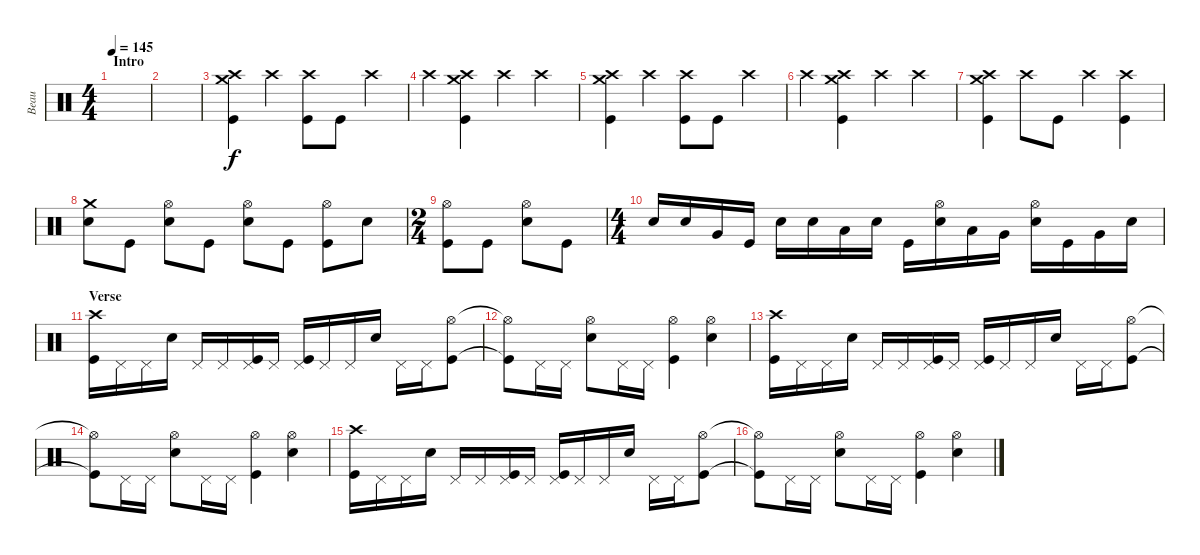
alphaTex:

\track ("Beau" "Beau") {instrument percussion}
\staff {score}
\articulation defaults
\ts (4 4)
\section ("" "Intro")
\tempo 145
\clef neutral
\ks c
|
|
("Kick (hit)" "Crash medium (hit)" "Crash high (hit)").4 "Crash high (hit)".4 ("Kick (hit)" "Crash high (hit)").8 "Kick (hit)".8 "Crash high (hit)".4 |
"Crash high (hit)".4 ("Kick (hit)" "Crash medium (hit)" "Crash high (hit)").4 "Crash high (hit)".4 "Crash high (hit)".4 |
("Kick (hit)" "Crash medium (hit)" "Crash high (hit)").4 "Crash high (hit)".4 ("Kick (hit)" "Crash high (hit)").8 "Kick (hit)".8 "Crash high (hit)".4 |
"Crash high (hit)".4 ("Kick (hit)" "Crash medium (hit)" "Crash high (hit)").4 "Crash high (hit)".4 "Crash high (hit)".4 |
("Kick (hit)" "Crash medium (hit)" "Crash high (hit)").4 "Crash high (hit)".8 "Kick (hit)".8 "Crash high (hit)".4 ("Kick (hit)" "Crash high (hit)").4 |
("Snare (hit) 2" "Crash medium (hit)").8 "Kick (hit)".8 ("Snare (hit) 2" "Hi-Hat (open)").8 "Kick (hit)".8 ("Snare (hit) 2" "Hi-Hat (open)").8 "Kick (hit)".8 ("Kick (hit)" "Hi-Hat (open)").8 "Snare (hit) 2".8 |
\ts (2 4)
("Kick (hit)" "Hi-Hat (open)").8 "Kick (hit)".8 ("Snare (hit) 2" "Hi-Hat (open)").8 "Kick (hit)".8 |
\ts (4 4)
"Snare (hit) 2".16 "Snare (hit) 2".16 "Very Low Tom (hit)".16 "Kick (hit)".16 "Snare (hit) 2".16 "Snare (hit) 2".16 "Low Tom (hit)".16 "Snare (hit) 2".16 "Kick (hit)".16 ("Snare (hit) 2" "Hi-Hat (open)").16 "Low Tom (hit)".16 "Very Low Tom (hit)".16 ("Snare (hit) 2" "Hi-Hat (open)").16 "Kick (hit)".16 "Very Low Tom (hit)".16 "Snare (hit) 2".16 |
\section ("" "Verse")
("Kick (hit)" "Crash high (hit)").16 "Pedal Hi-Hat (hit)".16 "Pedal Hi-Hat (hit)".16 "Snare (hit) 2".16 "Pedal Hi-Hat (hit)".16 "Pedal Hi-Hat (hit)".16 ("Kick (hit)" "Pedal Hi-Hat (hit)").16 "Pedal Hi-Hat (hit)".16 ("Kick (hit)" "Pedal Hi-Hat (hit)").16 "Pedal Hi-Hat (hit)".16 "Pedal Hi-Hat (hit)".16 "Snare (hit) 2".16 "Pedal Hi-Hat (hit)".16 "Pedal Hi-Hat (hit)".16 ("Kick (hit)" "Hi-Hat (open)").8 |
("Kick (hit)"{t} "Hi-Hat (open)"{t}).8 "Pedal Hi-Hat (hit)".16 "Pedal Hi-Hat (hit)".16 ("Snare (hit) 2" "Hi-Hat (open)").8 "Pedal Hi-Hat (hit)".16 "Pedal Hi-Hat (hit)".16 ("Kick (hit)" "Hi-Hat (open)").4 ("Snare (hit) 2" "Hi-Hat (open)").4 |
("Kick (hit)" "Crash high (hit)").16 "Pedal Hi-Hat (hit)".16 "Pedal Hi-Hat (hit)".16 "Snare (hit) 2".16 "Pedal Hi-Hat (hit)".16 "Pedal Hi-Hat (hit)".16 ("Kick (hit)" "Pedal Hi-Hat (hit)").16 "Pedal Hi-Hat (hit)".16 ("Kick (hit)" "Pedal Hi-Hat (hit)").16 "Pedal Hi-Hat (hit)".16 "Pedal Hi-Hat (hit)".16 "Snare (hit) 2".16 "Pedal Hi-Hat (hit)".16 "Pedal Hi-Hat (hit)".16 ("Kick (hit)" "Hi-Hat (open)").8 |
("Kick (hit)"{t} "Hi-Hat (open)"{t}).8 "Pedal Hi-Hat (hit)".16 "Pedal Hi-Hat (hit)".16 ("Snare (hit) 2" "Hi-Hat (open)").8 "Pedal Hi-Hat (hit)".16 "Pedal Hi-Hat (hit)".16 ("Kick (hit)" "Hi-Hat (open)").4 ("Snare (hit) 2" "Hi-Hat (open)").4 |
("Kick (hit)" "Crash high (hit)").16 "Pedal Hi-Hat (hit)".16 "Pedal Hi-Hat (hit)".16 "Snare (hit) 2".16 "Pedal Hi-Hat (hit)".16 "Pedal Hi-Hat (hit)".16 ("Kick (hit)" "Pedal Hi-Hat (hit)").16 "Pedal Hi-Hat (hit)".16 ("Kick (hit)" "Pedal Hi-Hat (hit)").16 "Pedal Hi-Hat (hit)".16 "Pedal Hi-Hat (hit)".16 "Snare (hit) 2".16 "Pedal Hi-Hat (hit)".16 "Pedal Hi-Hat (hit)".16 ("Kick (hit)" "Hi-Hat (open)").8 |
("Kick (hit)"{t} "Hi-Hat (open)"{t}).8 "Pedal Hi-Hat (hit)".16 "Pedal Hi-Hat (hit)".16 ("Snare (hit) 2" "Hi-Hat (open)").8 "Pedal Hi-Hat (hit)".16 "Pedal Hi-Hat (hit)".16 ("Kick (hit)" "Hi-Hat (open)").4 ("Snare (hit) 2" "Hi-Hat (open)").4
